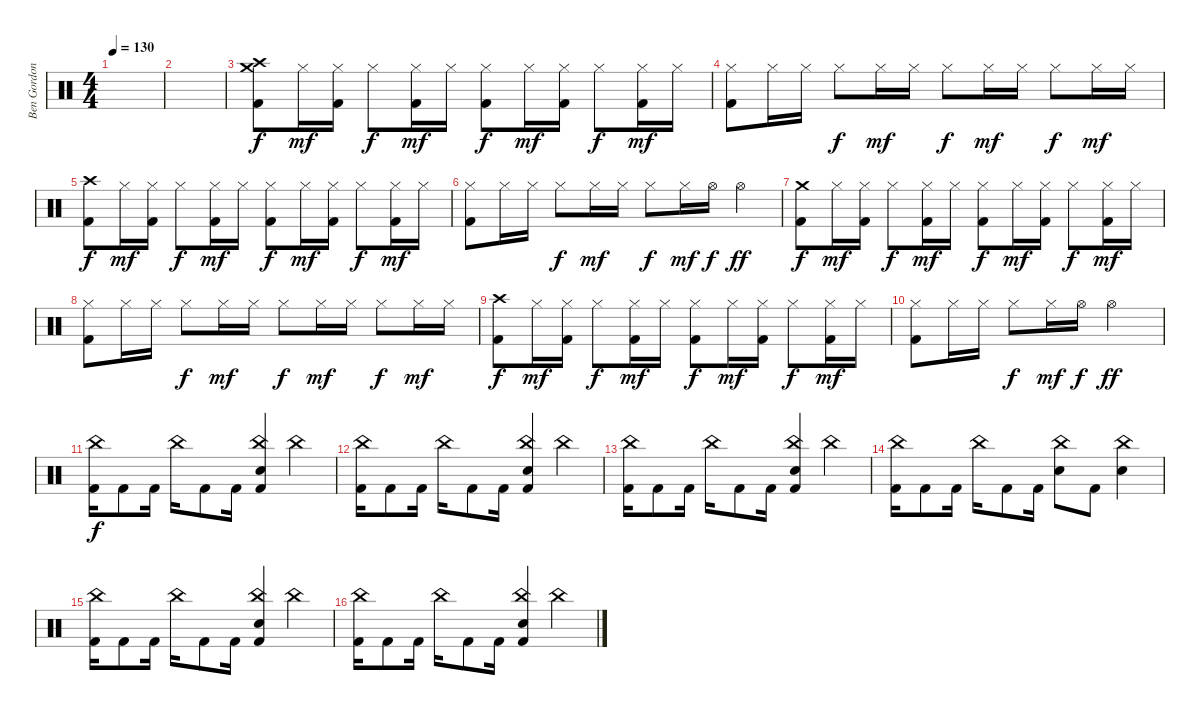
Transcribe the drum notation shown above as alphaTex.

\track ("Ben Gordon" "Ben Gordon") {instrument percussion}
\staff {score}
\articulation defaults
\ts (4 4)
\tempo 130
\clef neutral
\ks c
|
|
("Crash medium (hit)" "Crash high (hit)" "Kick (hit) 2").8 "Hi-Hat (closed)".16{dy mf} ("Hi-Hat (closed)" "Kick (hit) 2").16 "Hi-Hat (closed)".8{dy f} ("Hi-Hat (closed)" "Kick (hit) 2").16{dy mf} "Hi-Hat (closed)".16 ("Hi-Hat (closed)" "Kick (hit) 2").8{dy f} "Hi-Hat (closed)".16{dy mf} ("Hi-Hat (closed)" "Kick (hit) 2").16 "Hi-Hat (closed)".8{dy f} ("Hi-Hat (closed)" "Kick (hit) 2").16{dy mf} "Hi-Hat (closed)".16 |
("Hi-Hat (closed)" "Kick (hit) 2").8 "Hi-Hat (closed)".16 "Hi-Hat (closed)".16 "Hi-Hat (closed)".8{dy f} "Hi-Hat (closed)".16{dy mf} "Hi-Hat (closed)".16 "Hi-Hat (closed)".8{dy f} "Hi-Hat (closed)".16{dy mf} "Hi-Hat (closed)".16 "Hi-Hat (closed)".8{dy f} "Hi-Hat (closed)".16{dy mf} "Hi-Hat (closed)".16 |
("Crash high (hit)" "Kick (hit) 2").8{dy f} "Hi-Hat (closed)".16{dy mf} ("Hi-Hat (closed)" "Kick (hit) 2").16 "Hi-Hat (closed)".8{dy f} ("Hi-Hat (closed)" "Kick (hit) 2").16{dy mf} "Hi-Hat (closed)".16 ("Hi-Hat (closed)" "Kick (hit) 2").8{dy f} "Hi-Hat (closed)".16{dy mf} ("Hi-Hat (closed)" "Kick (hit) 2").16 "Hi-Hat (closed)".8{dy f} ("Hi-Hat (closed)" "Kick (hit) 2").16{dy mf} "Hi-Hat (closed)".16 |
("Hi-Hat (closed)" "Kick (hit) 2").8 "Hi-Hat (closed)".16 "Hi-Hat (closed)".16 "Hi-Hat (closed)".8{dy f} "Hi-Hat (closed)".16{dy mf} "Hi-Hat (closed)".16 "Hi-Hat (closed)".8{dy f} "Hi-Hat (closed)".16{dy mf} "Hi-Hat (open)".16{dy f} "Hi-Hat (open)".4{dy ff} |
("Crash medium (hit)" "Kick (hit) 2").8{dy f} "Hi-Hat (closed)".16{dy mf} ("Hi-Hat (closed)" "Kick (hit) 2").16 "Hi-Hat (closed)".8{dy f} ("Hi-Hat (closed)" "Kick (hit) 2").16{dy mf} "Hi-Hat (closed)".16 ("Hi-Hat (closed)" "Kick (hit) 2").8{dy f} "Hi-Hat (closed)".16{dy mf} ("Hi-Hat (closed)" "Kick (hit) 2").16 "Hi-Hat (closed)".8{dy f} ("Hi-Hat (closed)" "Kick (hit) 2").16{dy mf} "Hi-Hat (closed)".16 |
("Hi-Hat (closed)" "Kick (hit) 2").8 "Hi-Hat (closed)".16 "Hi-Hat (closed)".16 "Hi-Hat (closed)".8{dy f} "Hi-Hat (closed)".16{dy mf} "Hi-Hat (closed)".16 "Hi-Hat (closed)".8{dy f} "Hi-Hat (closed)".16{dy mf} "Hi-Hat (closed)".16 "Hi-Hat (closed)".8{dy f} "Hi-Hat (closed)".16{dy mf} "Hi-Hat (closed)".16 |
("Crash high (hit)" "Kick (hit) 2").8{dy f} "Hi-Hat (closed)".16{dy mf} ("Hi-Hat (closed)" "Kick (hit) 2").16 "Hi-Hat (closed)".8{dy f} ("Hi-Hat (closed)" "Kick (hit) 2").16{dy mf} "Hi-Hat (closed)".16 ("Hi-Hat (closed)" "Kick (hit) 2").8{dy f} "Hi-Hat (closed)".16{dy mf} ("Hi-Hat (closed)" "Kick (hit) 2").16 "Hi-Hat (closed)".8{dy f} ("Hi-Hat (closed)" "Kick (hit) 2").16{dy mf} "Hi-Hat (closed)".16 |
("Hi-Hat (closed)" "Kick (hit) 2").8 "Hi-Hat (closed)".16 "Hi-Hat (closed)".16 "Hi-Hat (closed)".8{dy f} "Hi-Hat (closed)".16{dy mf} "Hi-Hat (open)".16{dy f} "Hi-Hat (open)".2{dy ff} |
("China (hit)" "Kick (hit) 2").16{dy f} "Kick (hit) 2".8 "Kick (hit) 2".16 "China (hit)".16 "Kick (hit) 2".8 "Kick (hit) 2".16 ("China (hit)" "Snare (hit) 2" "Kick (hit) 2").4 "China (hit)".4 |
("China (hit)" "Kick (hit) 2").16 "Kick (hit) 2".8 "Kick (hit) 2".16 "China (hit)".16 "Kick (hit) 2".8 "Kick (hit) 2".16 ("China (hit)" "Snare (hit) 2" "Kick (hit) 2").4 "China (hit)".4 |
("China (hit)" "Kick (hit) 2").16 "Kick (hit) 2".8 "Kick (hit) 2".16 "China (hit)".16 "Kick (hit) 2".8 "Kick (hit) 2".16 ("China (hit)" "Snare (hit) 2" "Kick (hit) 2").4 "China (hit)".4 |
("China (hit)" "Kick (hit) 2").16 "Kick (hit) 2".8 "Kick (hit) 2".16 "China (hit)".16 "Kick (hit) 2".8 "Kick (hit) 2".16 ("China (hit)" "Snare (hit) 2").8 "Kick (hit) 2".8 ("China (hit)" "Snare (hit) 2").4 |
("China (hit)" "Kick (hit) 2").16 "Kick (hit) 2".8 "Kick (hit) 2".16 "China (hit)".16 "Kick (hit) 2".8 "Kick (hit) 2".16 ("China (hit)" "Snare (hit) 2" "Kick (hit) 2").4 "China (hit)".4 |
("China (hit)" "Kick (hit) 2").16 "Kick (hit) 2".8 "Kick (hit) 2".16 "China (hit)".16 "Kick (hit) 2".8 "Kick (hit) 2".16 ("China (hit)" "Snare (hit) 2" "Kick (hit) 2").4 "China (hit)".4
